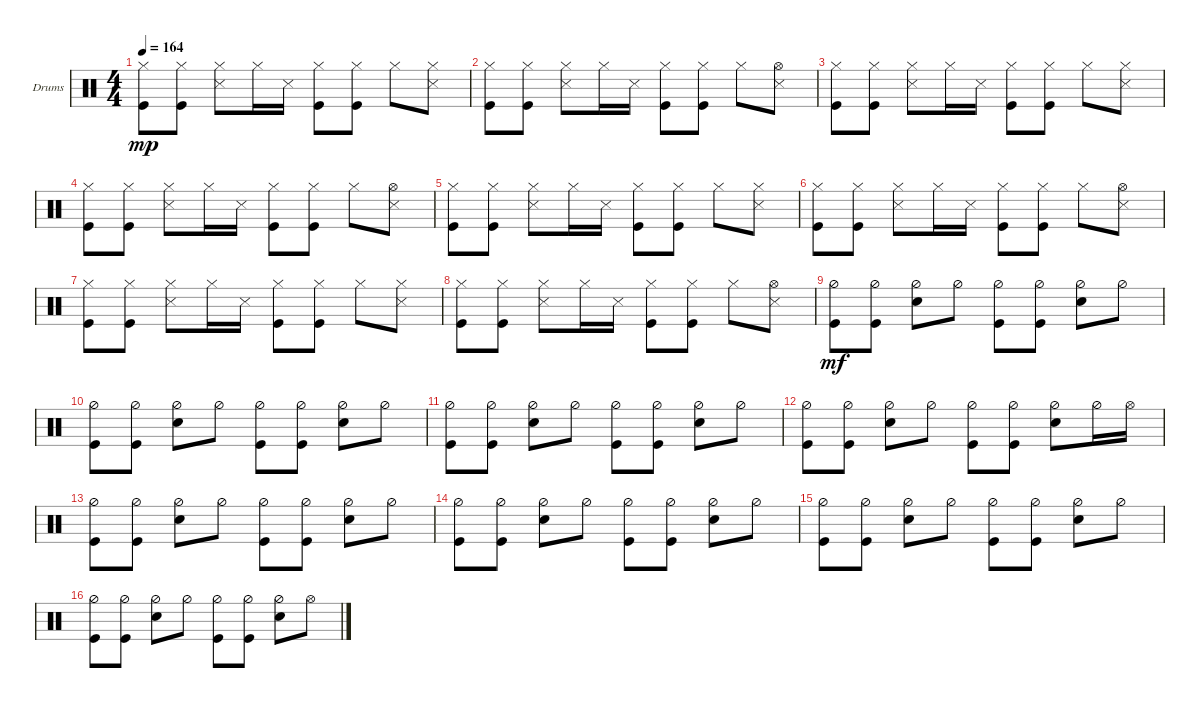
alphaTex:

\defaultSystemsLayout 4
\bracketExtendMode groupsimilarinstruments
\firstSystemTrackNameOrientation horizontal
\otherSystemsTrackNameOrientation horizontal
\track ("Drumkit" "Drums") {instrument percussion}
\staff {score}
\articulation defaults
\ts (4 4)
\tempo 164
\clef neutral
\ks c
("Kick (hit)" "Hi-Hat (closed)").8{dy mp} ("Kick (hit)" "Hi-Hat (closed)").8 ("Snare (side stick) 3" "Hi-Hat (closed)").8 "Hi-Hat (closed)".16 "Snare (side stick) 3".16 ("Kick (hit)" "Hi-Hat (closed)").8 ("Kick (hit)" "Hi-Hat (closed)").8 "Hi-Hat (closed)".8 ("Snare (side stick) 3" "Hi-Hat (closed)").8 |
("Kick (hit)" "Hi-Hat (closed)").8 ("Kick (hit)" "Hi-Hat (closed)").8 ("Snare (side stick) 3" "Hi-Hat (closed)").8 "Hi-Hat (closed)".16 "Snare (side stick) 3".16 ("Kick (hit)" "Hi-Hat (closed)").8 ("Kick (hit)" "Hi-Hat (closed)").8 "Hi-Hat (closed)".8 ("Snare (side stick) 3" "Hi-Hat (open)").8 |
("Kick (hit)" "Hi-Hat (closed)").8 ("Kick (hit)" "Hi-Hat (closed)").8 ("Snare (side stick) 3" "Hi-Hat (closed)").8 "Hi-Hat (closed)".16 "Snare (side stick) 3".16 ("Kick (hit)" "Hi-Hat (closed)").8 ("Kick (hit)" "Hi-Hat (closed)").8 "Hi-Hat (closed)".8 ("Snare (side stick) 3" "Hi-Hat (closed)").8 |
("Kick (hit)" "Hi-Hat (closed)").8 ("Kick (hit)" "Hi-Hat (closed)").8 ("Snare (side stick) 3" "Hi-Hat (closed)").8 "Hi-Hat (closed)".16 "Snare (side stick) 3".16 ("Kick (hit)" "Hi-Hat (closed)").8 ("Kick (hit)" "Hi-Hat (closed)").8 "Hi-Hat (closed)".8 ("Snare (side stick) 3" "Hi-Hat (open)").8 |
("Kick (hit)" "Hi-Hat (closed)").8 ("Kick (hit)" "Hi-Hat (closed)").8 ("Snare (side stick) 3" "Hi-Hat (closed)").8 "Hi-Hat (closed)".16 "Snare (side stick) 3".16 ("Kick (hit)" "Hi-Hat (closed)").8 ("Kick (hit)" "Hi-Hat (closed)").8 "Hi-Hat (closed)".8 ("Snare (side stick) 3" "Hi-Hat (closed)").8 |
("Kick (hit)" "Hi-Hat (closed)").8 ("Kick (hit)" "Hi-Hat (closed)").8 ("Snare (side stick) 3" "Hi-Hat (closed)").8 "Hi-Hat (closed)".16 "Snare (side stick) 3".16 ("Kick (hit)" "Hi-Hat (closed)").8 ("Kick (hit)" "Hi-Hat (closed)").8 "Hi-Hat (closed)".8 ("Snare (side stick) 3" "Hi-Hat (open)").8 |
("Kick (hit)" "Hi-Hat (closed)").8 ("Kick (hit)" "Hi-Hat (closed)").8 ("Snare (side stick) 3" "Hi-Hat (closed)").8 "Hi-Hat (closed)".16 "Snare (side stick) 3".16 ("Kick (hit)" "Hi-Hat (closed)").8 ("Kick (hit)" "Hi-Hat (closed)").8 "Hi-Hat (closed)".8 ("Snare (side stick) 3" "Hi-Hat (closed)").8 |
("Kick (hit)" "Hi-Hat (closed)").8 ("Kick (hit)" "Hi-Hat (closed)").8 ("Snare (side stick) 3" "Hi-Hat (closed)").8 "Hi-Hat (closed)".16 "Snare (side stick) 3".16 ("Kick (hit)" "Hi-Hat (closed)").8 ("Kick (hit)" "Hi-Hat (closed)").8 "Hi-Hat (closed)".8 ("Snare (side stick) 3" "Hi-Hat (open)").8 |
("Kick (hit)" "Hi-Hat (half)").8{dy mf} ("Kick (hit)" "Hi-Hat (half)").8 ("Snare (hit) 2" "Hi-Hat (half)").8 "Hi-Hat (half)".8 ("Kick (hit)" "Hi-Hat (half)").8 ("Kick (hit)" "Hi-Hat (half)").8 ("Snare (hit) 2" "Hi-Hat (half)").8 "Hi-Hat (half)".8 |
("Kick (hit)" "Hi-Hat (half)").8 ("Kick (hit)" "Hi-Hat (half)").8 ("Snare (hit) 2" "Hi-Hat (half)").8 "Hi-Hat (half)".8 ("Kick (hit)" "Hi-Hat (half)").8 ("Kick (hit)" "Hi-Hat (half)").8 ("Snare (hit) 2" "Hi-Hat (half)").8 "Hi-Hat (half)".8 |
("Kick (hit)" "Hi-Hat (half)").8 ("Kick (hit)" "Hi-Hat (half)").8 ("Snare (hit) 2" "Hi-Hat (half)").8 "Hi-Hat (half)".8 ("Kick (hit)" "Hi-Hat (half)").8 ("Kick (hit)" "Hi-Hat (half)").8 ("Snare (hit) 2" "Hi-Hat (half)").8 "Hi-Hat (half)".8 |
("Kick (hit)" "Hi-Hat (half)").8 ("Kick (hit)" "Hi-Hat (half)").8 ("Snare (hit) 2" "Hi-Hat (half)").8 "Hi-Hat (half)".8 ("Kick (hit)" "Hi-Hat (half)").8 ("Kick (hit)" "Hi-Hat (half)").8 ("Snare (hit) 2" "Hi-Hat (half)").8 "Hi-Hat (half)".16 "Hi-Hat (open)".16 |
("Kick (hit)" "Hi-Hat (half)").8 ("Kick (hit)" "Hi-Hat (half)").8 ("Snare (hit) 2" "Hi-Hat (half)").8 "Hi-Hat (half)".8 ("Kick (hit)" "Hi-Hat (half)").8 ("Kick (hit)" "Hi-Hat (half)").8 ("Snare (hit) 2" "Hi-Hat (half)").8 "Hi-Hat (half)".8 |
("Kick (hit)" "Hi-Hat (half)").8 ("Kick (hit)" "Hi-Hat (half)").8 ("Snare (hit) 2" "Hi-Hat (half)").8 "Hi-Hat (half)".8 ("Kick (hit)" "Hi-Hat (half)").8 ("Kick (hit)" "Hi-Hat (half)").8 ("Snare (hit) 2" "Hi-Hat (half)").8 "Hi-Hat (half)".8 |
("Kick (hit)" "Hi-Hat (half)").8 ("Kick (hit)" "Hi-Hat (half)").8 ("Snare (hit) 2" "Hi-Hat (half)").8 "Hi-Hat (half)".8 ("Kick (hit)" "Hi-Hat (half)").8 ("Kick (hit)" "Hi-Hat (half)").8 ("Snare (hit) 2" "Hi-Hat (half)").8 "Hi-Hat (half)".8 |
("Kick (hit)" "Hi-Hat (half)").8 ("Kick (hit)" "Hi-Hat (half)").8 ("Snare (hit) 2" "Hi-Hat (half)").8 "Hi-Hat (half)".8 ("Kick (hit)" "Hi-Hat (half)").8 ("Kick (hit)" "Hi-Hat (half)").8 ("Snare (hit) 2" "Hi-Hat (half)").8 "Hi-Hat (open)".8
